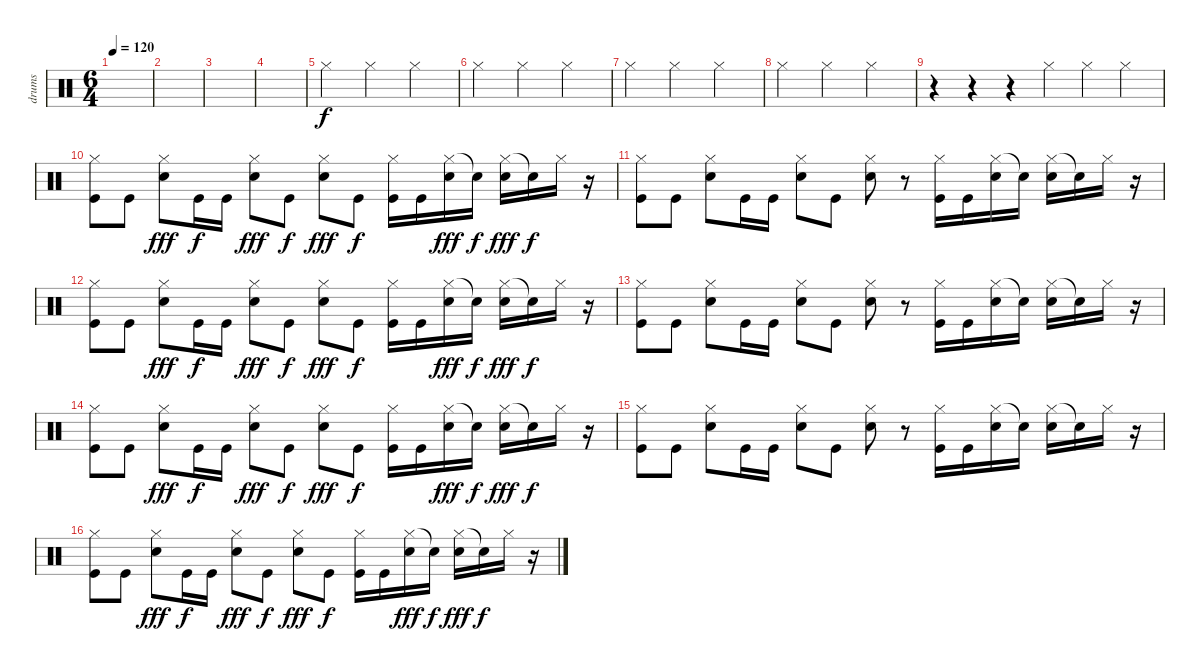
\track ("drums" "drums") {instrument percussion}
\staff {score}
\articulation defaults
\ts (6 4)
\tempo 120
\clef neutral
\ks c
|
|
|
|
"Hi-Hat (closed)".2{volume 11} "Hi-Hat (closed)".2 "Hi-Hat (closed)".2 |
"Hi-Hat (closed)".2 "Hi-Hat (closed)".2 "Hi-Hat (closed)".2 |
"Hi-Hat (closed)".2 "Hi-Hat (closed)".2 "Hi-Hat (closed)".2 |
"Hi-Hat (closed)".2 "Hi-Hat (closed)".2 "Hi-Hat (closed)".2 |
r.4 r.4 r.4 "Hi-Hat (closed)".4 "Hi-Hat (closed)".4 "Hi-Hat (closed)".4 |
("Hi-Hat (closed)" "Kick (hit)").8{volume 16} "Kick (hit)".8 ("Hi-Hat (closed)" "Electric Snare (hit)").8{dy fff} "Kick (hit)".16{dy f} "Kick (hit)".16 ("Hi-Hat (closed)" "Electric Snare (hit)").8{dy fff} "Kick (hit)".8{dy f} ("Hi-Hat (closed)" "Electric Snare (hit)").8{dy fff} "Kick (hit)".8{dy f} ("Hi-Hat (closed)" "Kick (hit)").16 "Kick (hit)".16 ("Hi-Hat (closed)" "Electric Snare (hit)").16{dy fff} "Snare (hit)"{t}.16{dy f} ("Hi-Hat (closed)" "Electric Snare (hit)").16{dy fff} "Snare (hit)"{t}.16{dy f} "Hi-Hat (closed)".16 r.16 |
("Hi-Hat (closed)" "Kick (hit)").8 "Kick (hit)".8 ("Hi-Hat (closed)" "Electric Snare (hit)").8 "Kick (hit)".16 "Kick (hit)".16 ("Hi-Hat (closed)" "Electric Snare (hit)").8 "Kick (hit)".8 ("Hi-Hat (closed)" "Electric Snare (hit)").8 r.8 ("Hi-Hat (closed)" "Kick (hit)").16 "Kick (hit)".16 ("Hi-Hat (closed)" "Electric Snare (hit)").16 "Snare (hit)"{t}.16 ("Hi-Hat (closed)" "Electric Snare (hit)").16 "Snare (hit)"{t}.16 "Hi-Hat (closed)".16 r.16 |
("Hi-Hat (closed)" "Kick (hit)").8 "Kick (hit)".8 ("Hi-Hat (closed)" "Electric Snare (hit)").8{dy fff} "Kick (hit)".16{dy f} "Kick (hit)".16 ("Hi-Hat (closed)" "Electric Snare (hit)").8{dy fff} "Kick (hit)".8{dy f} ("Hi-Hat (closed)" "Electric Snare (hit)").8{dy fff} "Kick (hit)".8{dy f} ("Hi-Hat (closed)" "Kick (hit)").16 "Kick (hit)".16 ("Hi-Hat (closed)" "Electric Snare (hit)").16{dy fff} "Snare (hit)"{t}.16{dy f} ("Hi-Hat (closed)" "Electric Snare (hit)").16{dy fff} "Snare (hit)"{t}.16{dy f} "Hi-Hat (closed)".16 r.16 |
("Hi-Hat (closed)" "Kick (hit)").8 "Kick (hit)".8 ("Hi-Hat (closed)" "Electric Snare (hit)").8 "Kick (hit)".16 "Kick (hit)".16 ("Hi-Hat (closed)" "Electric Snare (hit)").8 "Kick (hit)".8 ("Hi-Hat (closed)" "Electric Snare (hit)").8 r.8 ("Hi-Hat (closed)" "Kick (hit)").16 "Kick (hit)".16 ("Hi-Hat (closed)" "Electric Snare (hit)").16 "Snare (hit)"{t}.16 ("Hi-Hat (closed)" "Electric Snare (hit)").16 "Snare (hit)"{t}.16 "Hi-Hat (closed)".16 r.16 |
("Hi-Hat (closed)" "Kick (hit)").8{volume 16} "Kick (hit)".8 ("Hi-Hat (closed)" "Electric Snare (hit)").8{dy fff} "Kick (hit)".16{dy f} "Kick (hit)".16 ("Hi-Hat (closed)" "Electric Snare (hit)").8{dy fff} "Kick (hit)".8{dy f} ("Hi-Hat (closed)" "Electric Snare (hit)").8{dy fff} "Kick (hit)".8{dy f} ("Hi-Hat (closed)" "Kick (hit)").16 "Kick (hit)".16 ("Hi-Hat (closed)" "Electric Snare (hit)").16{dy fff} "Snare (hit)"{t}.16{dy f} ("Hi-Hat (closed)" "Electric Snare (hit)").16{dy fff} "Snare (hit)"{t}.16{dy f} "Hi-Hat (closed)".16 r.16 |
("Hi-Hat (closed)" "Kick (hit)").8 "Kick (hit)".8 ("Hi-Hat (closed)" "Electric Snare (hit)").8 "Kick (hit)".16 "Kick (hit)".16 ("Hi-Hat (closed)" "Electric Snare (hit)").8 "Kick (hit)".8 ("Hi-Hat (closed)" "Electric Snare (hit)").8 r.8 ("Hi-Hat (closed)" "Kick (hit)").16 "Kick (hit)".16 ("Hi-Hat (closed)" "Electric Snare (hit)").16 "Snare (hit)"{t}.16 ("Hi-Hat (closed)" "Electric Snare (hit)").16 "Snare (hit)"{t}.16 "Hi-Hat (closed)".16 r.16 |
("Hi-Hat (closed)" "Kick (hit)").8 "Kick (hit)".8 ("Hi-Hat (closed)" "Electric Snare (hit)").8{dy fff} "Kick (hit)".16{dy f} "Kick (hit)".16 ("Hi-Hat (closed)" "Electric Snare (hit)").8{dy fff} "Kick (hit)".8{dy f} ("Hi-Hat (closed)" "Electric Snare (hit)").8{dy fff} "Kick (hit)".8{dy f} ("Hi-Hat (closed)" "Kick (hit)").16 "Kick (hit)".16 ("Hi-Hat (closed)" "Electric Snare (hit)").16{dy fff} "Snare (hit)"{t}.16{dy f} ("Hi-Hat (closed)" "Electric Snare (hit)").16{dy fff} "Snare (hit)"{t}.16{dy f} "Hi-Hat (closed)".16 r.16
